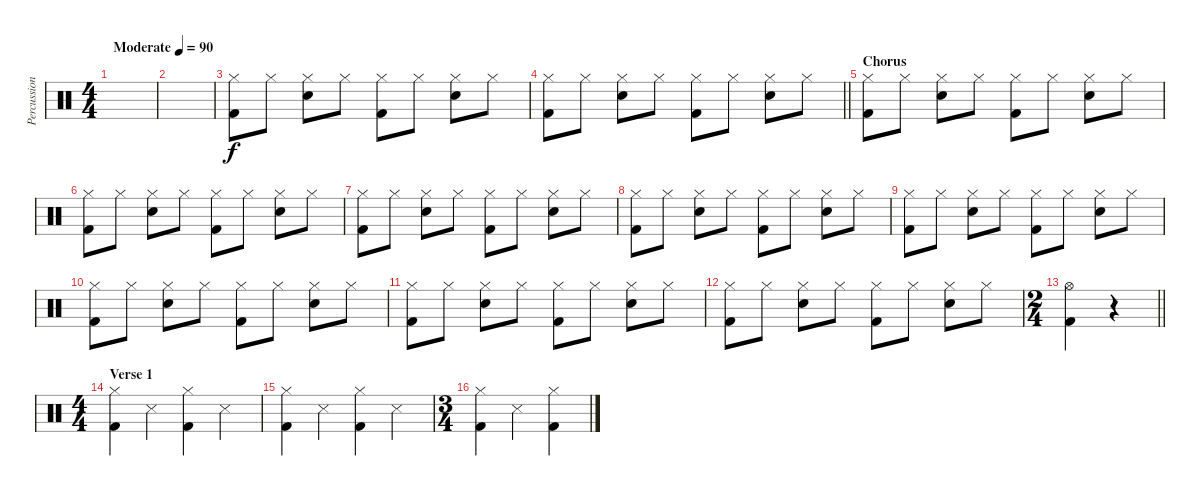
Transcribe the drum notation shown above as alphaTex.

\track ("Percussion" "Percussion") {instrument percussion}
\staff {score}
\articulation defaults
\ts (4 4)
\tempo (90 "Moderate")
\clef neutral
\ks c
|
|
("Hi-Hat (closed)" "Kick (hit) 2").8 "Hi-Hat (closed)".8 ("Hi-Hat (closed)" "Snare (hit) 2").8 "Hi-Hat (closed)".8 ("Hi-Hat (closed)" "Kick (hit) 2").8 "Hi-Hat (closed)".8 ("Hi-Hat (closed)" "Snare (hit) 2").8 "Hi-Hat (closed)".8 |
\barLineRight lightlight
("Hi-Hat (closed)" "Kick (hit) 2").8 "Hi-Hat (closed)".8 ("Hi-Hat (closed)" "Snare (hit) 2").8 "Hi-Hat (closed)".8 ("Hi-Hat (closed)" "Kick (hit) 2").8 "Hi-Hat (closed)".8 ("Hi-Hat (closed)" "Snare (hit) 2").8 "Hi-Hat (closed)".8 |
\section ("" "Chorus")
("Hi-Hat (closed)" "Kick (hit) 2").8 "Hi-Hat (closed)".8 ("Hi-Hat (closed)" "Snare (hit) 2").8 "Hi-Hat (closed)".8 ("Hi-Hat (closed)" "Kick (hit) 2").8 "Hi-Hat (closed)".8 ("Hi-Hat (closed)" "Snare (hit) 2").8 "Hi-Hat (closed)".8 |
("Hi-Hat (closed)" "Kick (hit) 2").8 "Hi-Hat (closed)".8 ("Hi-Hat (closed)" "Snare (hit) 2").8 "Hi-Hat (closed)".8 ("Hi-Hat (closed)" "Kick (hit) 2").8 "Hi-Hat (closed)".8 ("Hi-Hat (closed)" "Snare (hit) 2").8 "Hi-Hat (closed)".8 |
("Hi-Hat (closed)" "Kick (hit) 2").8 "Hi-Hat (closed)".8 ("Hi-Hat (closed)" "Snare (hit) 2").8 "Hi-Hat (closed)".8 ("Hi-Hat (closed)" "Kick (hit) 2").8 "Hi-Hat (closed)".8 ("Hi-Hat (closed)" "Snare (hit) 2").8 "Hi-Hat (closed)".8 |
("Hi-Hat (closed)" "Kick (hit) 2").8 "Hi-Hat (closed)".8 ("Hi-Hat (closed)" "Snare (hit) 2").8 "Hi-Hat (closed)".8 ("Hi-Hat (closed)" "Kick (hit) 2").8 "Hi-Hat (closed)".8 ("Hi-Hat (closed)" "Snare (hit) 2").8 "Hi-Hat (closed)".8 |
("Hi-Hat (closed)" "Kick (hit) 2").8 "Hi-Hat (closed)".8 ("Hi-Hat (closed)" "Snare (hit) 2").8 "Hi-Hat (closed)".8 ("Hi-Hat (closed)" "Kick (hit) 2").8 "Hi-Hat (closed)".8 ("Hi-Hat (closed)" "Snare (hit) 2").8 "Hi-Hat (closed)".8 |
("Hi-Hat (closed)" "Kick (hit) 2").8 "Hi-Hat (closed)".8 ("Hi-Hat (closed)" "Snare (hit) 2").8 "Hi-Hat (closed)".8 ("Hi-Hat (closed)" "Kick (hit) 2").8 "Hi-Hat (closed)".8 ("Hi-Hat (closed)" "Snare (hit) 2").8 "Hi-Hat (closed)".8 |
("Hi-Hat (closed)" "Kick (hit) 2").8 "Hi-Hat (closed)".8 ("Hi-Hat (closed)" "Snare (hit) 2").8 "Hi-Hat (closed)".8 ("Hi-Hat (closed)" "Kick (hit) 2").8 "Hi-Hat (closed)".8 ("Hi-Hat (closed)" "Snare (hit) 2").8 "Hi-Hat (closed)".8 |
("Hi-Hat (closed)" "Kick (hit) 2").8 "Hi-Hat (closed)".8 ("Hi-Hat (closed)" "Snare (hit) 2").8 "Hi-Hat (closed)".8 ("Hi-Hat (closed)" "Kick (hit) 2").8 "Hi-Hat (closed)".8 ("Hi-Hat (closed)" "Snare (hit) 2").8 "Hi-Hat (closed)".8 |
\ts (2 4)
\barLineRight lightlight
("Hi-Hat (open)" "Kick (hit) 2").4 r.4 |
\ts (4 4)
\section ("" "Verse 1")
("Hi-Hat (closed)" "Kick (hit) 2").4 "Snare (side stick) 3".4 ("Hi-Hat (closed)" "Kick (hit) 2").4 "Snare (side stick) 3".4 |
("Hi-Hat (closed)" "Kick (hit) 2").4 "Snare (side stick) 3".4 ("Hi-Hat (closed)" "Kick (hit) 2").4 "Snare (side stick) 3".4 |
\ts (3 4)
("Hi-Hat (closed)" "Kick (hit) 2").4 "Snare (side stick) 3".4 ("Hi-Hat (closed)" "Kick (hit) 2").4
